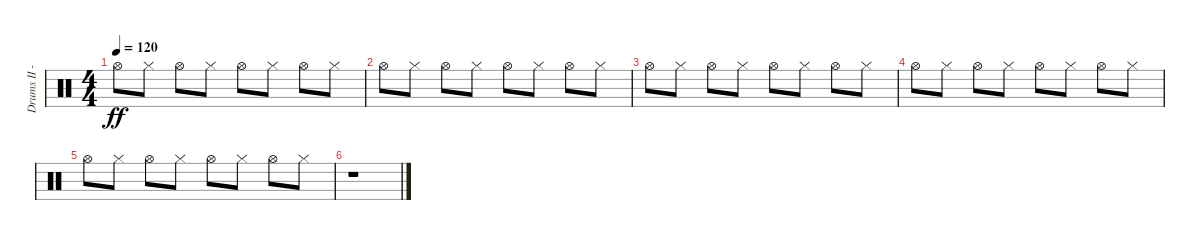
\track ("Drums II - Bobby Schayer" "Drums II -") {instrument percussion}
\staff {score}
\articulation defaults
\ts (4 4)
\tempo 120
\clef neutral
\ks c "Hi-Hat (open)".8{dy ff} "Hi-Hat (closed)".8 "Hi-Hat (open)".8 "Hi-Hat (closed)".8 "Hi-Hat (open)".8 "Hi-Hat (closed)".8 "Hi-Hat (open)".8 "Hi-Hat (closed)".8
|
"Hi-Hat (open)".8 "Hi-Hat (closed)".8 "Hi-Hat (open)".8 "Hi-Hat (closed)".8 "Hi-Hat (open)".8 "Hi-Hat (closed)".8 "Hi-Hat (open)".8 "Hi-Hat (closed)".8 |
"Hi-Hat (open)".8 "Hi-Hat (closed)".8 "Hi-Hat (open)".8 "Hi-Hat (closed)".8 "Hi-Hat (open)".8 "Hi-Hat (closed)".8 "Hi-Hat (open)".8 "Hi-Hat (closed)".8 |
"Hi-Hat (open)".8 "Hi-Hat (closed)".8 "Hi-Hat (open)".8 "Hi-Hat (closed)".8 "Hi-Hat (open)".8 "Hi-Hat (closed)".8 "Hi-Hat (open)".8 "Hi-Hat (closed)".8 |
"Hi-Hat (open)".8 "Hi-Hat (closed)".8 "Hi-Hat (open)".8 "Hi-Hat (closed)".8 "Hi-Hat (open)".8 "Hi-Hat (closed)".8 "Hi-Hat (open)".8 "Hi-Hat (closed)".8 |
r.1
